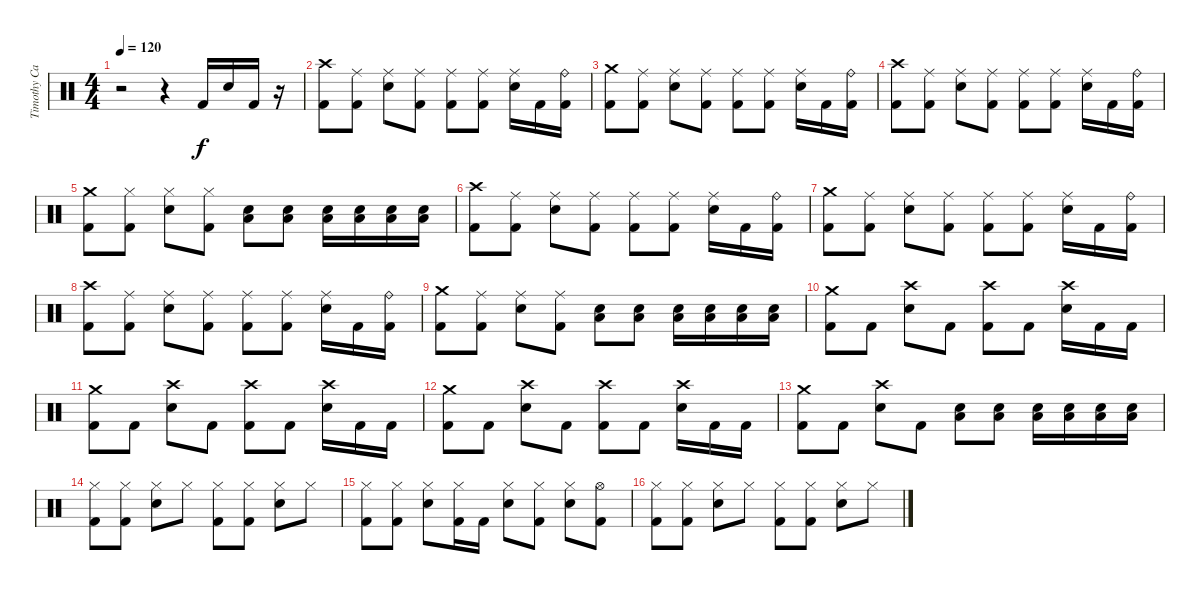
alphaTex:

\track ("Timothy Calkin" "Timothy Ca") {instrument percussion}
\staff {score}
\articulation defaults
\ts (4 4)
\tempo 120
\clef neutral
\ks c
r.2{dy fff} r.4 "Kick (hit) 2".16{dy f} "Snare (hit) 2".16 "Kick (hit) 2".16 r.16 |
("Crash high (hit)" "Kick (hit) 2").8 ("Ride (middle)" "Kick (hit) 2").8 ("Ride (middle)" "Snare (hit) 2").8 ("Ride (middle)" "Kick (hit) 2").8 ("Ride (middle)" "Kick (hit) 2").8 ("Ride (middle)" "Kick (hit) 2").8 ("Ride (middle)" "Snare (hit) 2").16 "Kick (hit) 2".16 ("Ride (bell)" "Kick (hit) 2").16 |
("Crash medium (hit)" "Kick (hit) 2").8 ("Ride (middle)" "Kick (hit) 2").8 ("Ride (middle)" "Snare (hit) 2").8 ("Ride (middle)" "Kick (hit) 2").8 ("Ride (middle)" "Kick (hit) 2").8 ("Ride (middle)" "Kick (hit) 2").8 ("Ride (middle)" "Snare (hit) 2").16 "Kick (hit) 2".16 ("Ride (bell)" "Kick (hit) 2").16 |
("Crash high (hit)" "Kick (hit) 2").8 ("Ride (middle)" "Kick (hit) 2").8 ("Ride (middle)" "Snare (hit) 2").8 ("Ride (middle)" "Kick (hit) 2").8 ("Ride (middle)" "Kick (hit) 2").8 ("Ride (middle)" "Kick (hit) 2").8 ("Ride (middle)" "Snare (hit) 2").16 "Kick (hit) 2".16 ("Ride (bell)" "Kick (hit) 2").16 |
("Crash medium (hit)" "Kick (hit) 2").8 ("Hi-Hat (closed)" "Kick (hit) 2").8 ("Hi-Hat (closed)" "Snare (hit) 2").8 ("Hi-Hat (closed)" "Kick (hit) 2").8 ("Snare (hit) 2" "Low Floor Tom (hit)").8 ("Snare (hit) 2" "Low Floor Tom (hit)").8 ("Snare (hit) 2" "Low Floor Tom (hit)").16 ("Snare (hit) 2" "Low Floor Tom (hit)").16 ("Snare (hit) 2" "Low Floor Tom (hit)").16 ("Snare (hit) 2" "Low Floor Tom (hit)").16 |
("Crash high (hit)" "Kick (hit) 2").8 ("Ride (middle)" "Kick (hit) 2").8 ("Ride (middle)" "Snare (hit) 2").8 ("Ride (middle)" "Kick (hit) 2").8 ("Ride (middle)" "Kick (hit) 2").8 ("Ride (middle)" "Kick (hit) 2").8 ("Ride (middle)" "Snare (hit) 2").16 "Kick (hit) 2".16 ("Ride (bell)" "Kick (hit) 2").16 |
("Crash medium (hit)" "Kick (hit) 2").8 ("Ride (middle)" "Kick (hit) 2").8 ("Ride (middle)" "Snare (hit) 2").8 ("Ride (middle)" "Kick (hit) 2").8 ("Ride (middle)" "Kick (hit) 2").8 ("Ride (middle)" "Kick (hit) 2").8 ("Ride (middle)" "Snare (hit) 2").16 "Kick (hit) 2".16 ("Ride (bell)" "Kick (hit) 2").16 |
("Crash high (hit)" "Kick (hit) 2").8 ("Ride (middle)" "Kick (hit) 2").8 ("Ride (middle)" "Snare (hit) 2").8 ("Ride (middle)" "Kick (hit) 2").8 ("Ride (middle)" "Kick (hit) 2").8 ("Ride (middle)" "Kick (hit) 2").8 ("Ride (middle)" "Snare (hit) 2").16 "Kick (hit) 2".16 ("Ride (bell)" "Kick (hit) 2").16 |
("Crash medium (hit)" "Kick (hit) 2").8 ("Ride (middle)" "Kick (hit) 2").8 ("Ride (middle)" "Snare (hit) 2").8 ("Ride (middle)" "Kick (hit) 2").8 ("Snare (hit) 2" "Low Floor Tom (hit)").8 ("Snare (hit) 2" "Low Floor Tom (hit)").8 ("Snare (hit) 2" "Low Floor Tom (hit)").16 ("Snare (hit) 2" "Low Floor Tom (hit)").16 ("Snare (hit) 2" "Low Floor Tom (hit)").16 ("Snare (hit) 2" "Low Floor Tom (hit)").16 |
("Crash medium (hit)" "Kick (hit) 2").8 "Kick (hit) 2".8 ("Crash high (hit)" "Snare (hit) 2").8 "Kick (hit) 2".8 ("Crash high (hit)" "Kick (hit) 2").8 "Kick (hit) 2".8 ("Crash high (hit)" "Snare (hit) 2").16 "Kick (hit) 2".16 "Kick (hit) 2".16 |
("Crash medium (hit)" "Kick (hit) 2").8 "Kick (hit) 2".8 ("Crash high (hit)" "Snare (hit) 2").8 "Kick (hit) 2".8 ("Crash high (hit)" "Kick (hit) 2").8 "Kick (hit) 2".8 ("Crash high (hit)" "Snare (hit) 2").16 "Kick (hit) 2".16 "Kick (hit) 2".16 |
("Crash medium (hit)" "Kick (hit) 2").8 "Kick (hit) 2".8 ("Crash high (hit)" "Snare (hit) 2").8 "Kick (hit) 2".8 ("Crash high (hit)" "Kick (hit) 2").8 "Kick (hit) 2".8 ("Crash high (hit)" "Snare (hit) 2").16 "Kick (hit) 2".16 "Kick (hit) 2".16 |
("Crash medium (hit)" "Kick (hit) 2").8 "Kick (hit) 2".8 ("Crash high (hit)" "Snare (hit) 2").8 "Kick (hit) 2".8 ("Snare (hit) 2" "Low Floor Tom (hit)").8 ("Snare (hit) 2" "Low Floor Tom (hit)").8 ("Snare (hit) 2" "Low Floor Tom (hit)").16 ("Snare (hit) 2" "Low Floor Tom (hit)").16 ("Snare (hit) 2" "Low Floor Tom (hit)").16 ("Snare (hit) 2" "Low Floor Tom (hit)").16 |
("Hi-Hat (closed)" "Kick (hit) 2").8 ("Hi-Hat (closed)" "Kick (hit) 2").8 ("Hi-Hat (closed)" "Snare (hit) 2").8 "Hi-Hat (closed)".8 ("Hi-Hat (closed)" "Kick (hit) 2").8 ("Hi-Hat (closed)" "Kick (hit) 2").8 ("Hi-Hat (closed)" "Snare (hit) 2").8 "Hi-Hat (closed)".8 |
("Hi-Hat (closed)" "Kick (hit) 2").8 ("Hi-Hat (closed)" "Kick (hit) 2").8 ("Hi-Hat (closed)" "Snare (hit) 2").8 ("Hi-Hat (closed)" "Kick (hit) 2").16 "Kick (hit) 2".16 ("Hi-Hat (closed)" "Snare (hit) 2").8 ("Hi-Hat (closed)" "Kick (hit) 2").8 ("Hi-Hat (closed)" "Snare (hit) 2").8 ("Hi-Hat (open)" "Kick (hit) 2").8 |
("Hi-Hat (closed)" "Kick (hit) 2").8 ("Hi-Hat (closed)" "Kick (hit) 2").8 ("Hi-Hat (closed)" "Snare (hit) 2").8 "Hi-Hat (closed)".8 ("Hi-Hat (closed)" "Kick (hit) 2").8 ("Hi-Hat (closed)" "Kick (hit) 2").8 ("Hi-Hat (closed)" "Snare (hit) 2").8 "Hi-Hat (closed)".8
